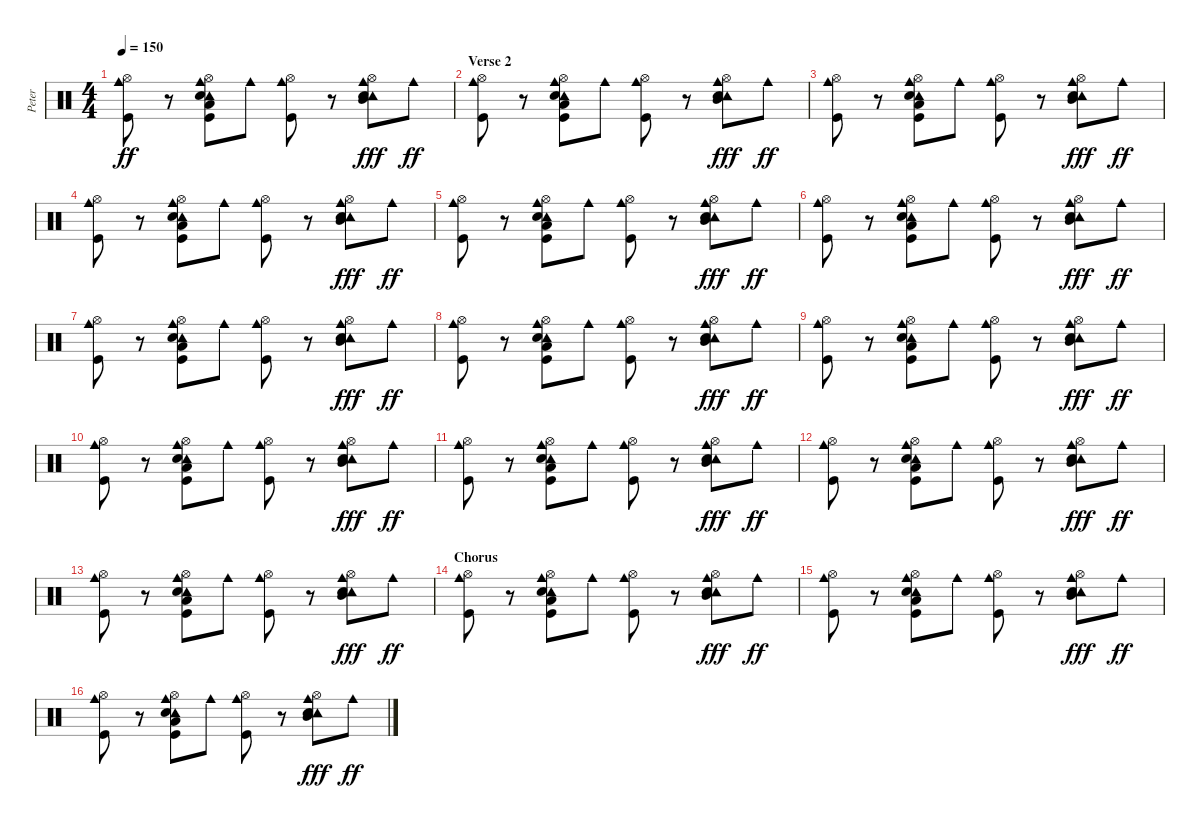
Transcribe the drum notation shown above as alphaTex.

\track ("Peter" "Peter") {instrument percussion}
\staff {score}
\articulation defaults
\ts (4 4)
\tempo 150
\clef neutral
\ks c
("Cowbell medium (hit)" "Hi-Hat (open)" "Kick (hit)").8{dy ff} r.8 ("Cowbell medium (hit)" "Tambourine (hit)" "Hi-Hat (open)" "Hand Clap (hit)" "Low Floor Tom (hit)" "Kick (hit)").8 "Cowbell medium (hit)".8 ("Cowbell medium (hit)" "Hi-Hat (open)" "Kick (hit)").8 r.8 ("Cowbell medium (hit)" "Tambourine (hit)" "Hi-Hat (open)" "Mid Tom (hit)" "Hand Clap (hit)").8{dy fff} "Cowbell medium (hit)".8{dy ff} |
\section ("" "Verse 2")
("Cowbell medium (hit)" "Hi-Hat (open)" "Kick (hit)").8 r.8 ("Cowbell medium (hit)" "Tambourine (hit)" "Hi-Hat (open)" "Hand Clap (hit)" "Low Floor Tom (hit)" "Kick (hit)").8 "Cowbell medium (hit)".8 ("Cowbell medium (hit)" "Hi-Hat (open)" "Kick (hit)").8 r.8 ("Cowbell medium (hit)" "Tambourine (hit)" "Hi-Hat (open)" "Mid Tom (hit)" "Hand Clap (hit)").8{dy fff} "Cowbell medium (hit)".8{dy ff} |
("Cowbell medium (hit)" "Hi-Hat (open)" "Kick (hit)").8 r.8 ("Cowbell medium (hit)" "Tambourine (hit)" "Hi-Hat (open)" "Hand Clap (hit)" "Low Floor Tom (hit)" "Kick (hit)").8 "Cowbell medium (hit)".8 ("Cowbell medium (hit)" "Hi-Hat (open)" "Kick (hit)").8 r.8 ("Cowbell medium (hit)" "Tambourine (hit)" "Hi-Hat (open)" "Mid Tom (hit)" "Hand Clap (hit)").8{dy fff} "Cowbell medium (hit)".8{dy ff} |
("Cowbell medium (hit)" "Hi-Hat (open)" "Kick (hit)").8 r.8 ("Cowbell medium (hit)" "Tambourine (hit)" "Hi-Hat (open)" "Hand Clap (hit)" "Low Floor Tom (hit)" "Kick (hit)").8 "Cowbell medium (hit)".8 ("Cowbell medium (hit)" "Hi-Hat (open)" "Kick (hit)").8 r.8 ("Cowbell medium (hit)" "Tambourine (hit)" "Hi-Hat (open)" "Mid Tom (hit)" "Hand Clap (hit)").8{dy fff} "Cowbell medium (hit)".8{dy ff} |
("Cowbell medium (hit)" "Hi-Hat (open)" "Kick (hit)").8 r.8 ("Cowbell medium (hit)" "Tambourine (hit)" "Hi-Hat (open)" "Hand Clap (hit)" "Low Floor Tom (hit)" "Kick (hit)").8 "Cowbell medium (hit)".8 ("Cowbell medium (hit)" "Hi-Hat (open)" "Kick (hit)").8 r.8 ("Cowbell medium (hit)" "Tambourine (hit)" "Hi-Hat (open)" "Mid Tom (hit)" "Hand Clap (hit)").8{dy fff} "Cowbell medium (hit)".8{dy ff} |
("Cowbell medium (hit)" "Hi-Hat (open)" "Kick (hit)").8 r.8 ("Cowbell medium (hit)" "Tambourine (hit)" "Hi-Hat (open)" "Hand Clap (hit)" "Low Floor Tom (hit)" "Kick (hit)").8 "Cowbell medium (hit)".8 ("Cowbell medium (hit)" "Hi-Hat (open)" "Kick (hit)").8 r.8 ("Cowbell medium (hit)" "Tambourine (hit)" "Hi-Hat (open)" "Mid Tom (hit)" "Hand Clap (hit)").8{dy fff} "Cowbell medium (hit)".8{dy ff} |
("Cowbell medium (hit)" "Hi-Hat (open)" "Kick (hit)").8 r.8 ("Cowbell medium (hit)" "Tambourine (hit)" "Hi-Hat (open)" "Hand Clap (hit)" "Low Floor Tom (hit)" "Kick (hit)").8 "Cowbell medium (hit)".8 ("Cowbell medium (hit)" "Hi-Hat (open)" "Kick (hit)").8 r.8 ("Cowbell medium (hit)" "Tambourine (hit)" "Hi-Hat (open)" "Mid Tom (hit)" "Hand Clap (hit)").8{dy fff} "Cowbell medium (hit)".8{dy ff} |
("Cowbell medium (hit)" "Hi-Hat (open)" "Kick (hit)").8 r.8 ("Cowbell medium (hit)" "Tambourine (hit)" "Hi-Hat (open)" "Hand Clap (hit)" "Low Floor Tom (hit)" "Kick (hit)").8 "Cowbell medium (hit)".8 ("Cowbell medium (hit)" "Hi-Hat (open)" "Kick (hit)").8 r.8 ("Cowbell medium (hit)" "Tambourine (hit)" "Hi-Hat (open)" "Mid Tom (hit)" "Hand Clap (hit)").8{dy fff} "Cowbell medium (hit)".8{dy ff} |
("Cowbell medium (hit)" "Hi-Hat (open)" "Kick (hit)").8 r.8 ("Cowbell medium (hit)" "Tambourine (hit)" "Hi-Hat (open)" "Hand Clap (hit)" "Low Floor Tom (hit)" "Kick (hit)").8 "Cowbell medium (hit)".8 ("Cowbell medium (hit)" "Hi-Hat (open)" "Kick (hit)").8 r.8 ("Cowbell medium (hit)" "Tambourine (hit)" "Hi-Hat (open)" "Mid Tom (hit)" "Hand Clap (hit)").8{dy fff} "Cowbell medium (hit)".8{dy ff} |
("Cowbell medium (hit)" "Hi-Hat (open)" "Kick (hit)").8 r.8 ("Cowbell medium (hit)" "Tambourine (hit)" "Hi-Hat (open)" "Hand Clap (hit)" "Low Floor Tom (hit)" "Kick (hit)").8 "Cowbell medium (hit)".8 ("Cowbell medium (hit)" "Hi-Hat (open)" "Kick (hit)").8 r.8 ("Cowbell medium (hit)" "Tambourine (hit)" "Hi-Hat (open)" "Mid Tom (hit)" "Hand Clap (hit)").8{dy fff} "Cowbell medium (hit)".8{dy ff} |
("Cowbell medium (hit)" "Hi-Hat (open)" "Kick (hit)").8 r.8 ("Cowbell medium (hit)" "Tambourine (hit)" "Hi-Hat (open)" "Hand Clap (hit)" "Low Floor Tom (hit)" "Kick (hit)").8 "Cowbell medium (hit)".8 ("Cowbell medium (hit)" "Hi-Hat (open)" "Kick (hit)").8 r.8 ("Cowbell medium (hit)" "Tambourine (hit)" "Hi-Hat (open)" "Mid Tom (hit)" "Hand Clap (hit)").8{dy fff} "Cowbell medium (hit)".8{dy ff} |
("Cowbell medium (hit)" "Hi-Hat (open)" "Kick (hit)").8 r.8 ("Cowbell medium (hit)" "Tambourine (hit)" "Hi-Hat (open)" "Hand Clap (hit)" "Low Floor Tom (hit)" "Kick (hit)").8 "Cowbell medium (hit)".8 ("Cowbell medium (hit)" "Hi-Hat (open)" "Kick (hit)").8 r.8 ("Cowbell medium (hit)" "Tambourine (hit)" "Hi-Hat (open)" "Mid Tom (hit)" "Hand Clap (hit)").8{dy fff} "Cowbell medium (hit)".8{dy ff} |
("Cowbell medium (hit)" "Hi-Hat (open)" "Kick (hit)").8 r.8 ("Cowbell medium (hit)" "Tambourine (hit)" "Hi-Hat (open)" "Hand Clap (hit)" "Low Floor Tom (hit)" "Kick (hit)").8 "Cowbell medium (hit)".8 ("Cowbell medium (hit)" "Hi-Hat (open)" "Kick (hit)").8 r.8 ("Cowbell medium (hit)" "Tambourine (hit)" "Hi-Hat (open)" "Mid Tom (hit)" "Hand Clap (hit)").8{dy fff} "Cowbell medium (hit)".8{dy ff} |
\section ("" "Chorus")
("Cowbell medium (hit)" "Hi-Hat (open)" "Kick (hit)").8 r.8 ("Cowbell medium (hit)" "Tambourine (hit)" "Hi-Hat (open)" "Hand Clap (hit)" "Low Floor Tom (hit)" "Kick (hit)").8 "Cowbell medium (hit)".8 ("Cowbell medium (hit)" "Hi-Hat (open)" "Kick (hit)").8 r.8 ("Cowbell medium (hit)" "Tambourine (hit)" "Hi-Hat (open)" "Mid Tom (hit)" "Hand Clap (hit)").8{dy fff} "Cowbell medium (hit)".8{dy ff} |
("Cowbell medium (hit)" "Hi-Hat (open)" "Kick (hit)").8 r.8 ("Cowbell medium (hit)" "Tambourine (hit)" "Hi-Hat (open)" "Hand Clap (hit)" "Low Floor Tom (hit)" "Kick (hit)").8 "Cowbell medium (hit)".8 ("Cowbell medium (hit)" "Hi-Hat (open)" "Kick (hit)").8 r.8 ("Cowbell medium (hit)" "Tambourine (hit)" "Hi-Hat (open)" "Mid Tom (hit)" "Hand Clap (hit)").8{dy fff} "Cowbell medium (hit)".8{dy ff} |
("Cowbell medium (hit)" "Hi-Hat (open)" "Kick (hit)").8 r.8 ("Cowbell medium (hit)" "Tambourine (hit)" "Hi-Hat (open)" "Hand Clap (hit)" "Low Floor Tom (hit)" "Kick (hit)").8 "Cowbell medium (hit)".8 ("Cowbell medium (hit)" "Hi-Hat (open)" "Kick (hit)").8 r.8 ("Cowbell medium (hit)" "Tambourine (hit)" "Hi-Hat (open)" "Mid Tom (hit)" "Hand Clap (hit)").8{dy fff} "Cowbell medium (hit)".8{dy ff}
